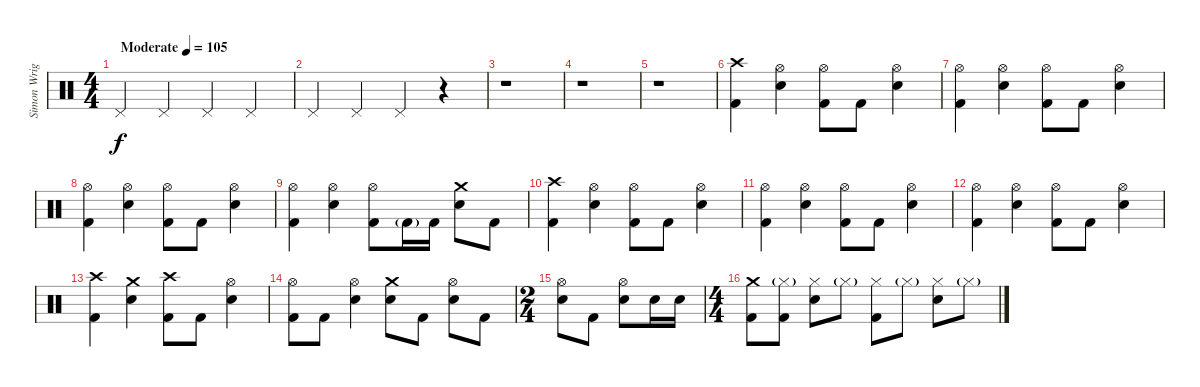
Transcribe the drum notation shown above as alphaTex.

\track ("Simon Wright" "Simon Wrig") {instrument percussion}
\staff {score}
\articulation defaults
\ts (4 4)
\tempo (105 "Moderate")
\clef neutral
\ks c "Pedal Hi-Hat (hit)".4{dy f} "Pedal Hi-Hat (hit)".4 "Pedal Hi-Hat (hit)".4 "Pedal Hi-Hat (hit)".4
|
"Pedal Hi-Hat (hit)".4 "Pedal Hi-Hat (hit)".4 "Pedal Hi-Hat (hit)".4 r.4 |
r.1 |
r.1 |
r.1 |
("Crash high (hit)" "Kick (hit) 2").4 ("Hi-Hat (open)" "Snare (hit) 2").4 ("Hi-Hat (open)" "Kick (hit) 2").8 "Kick (hit) 2".8 ("Hi-Hat (open)" "Snare (hit) 2").4 |
("Hi-Hat (open)" "Kick (hit) 2").4 ("Hi-Hat (open)" "Snare (hit) 2").4 ("Hi-Hat (open)" "Kick (hit) 2").8 "Kick (hit) 2".8 ("Hi-Hat (open)" "Snare (hit) 2").4 |
("Hi-Hat (open)" "Kick (hit) 2").4 ("Hi-Hat (open)" "Snare (hit) 2").4 ("Hi-Hat (open)" "Kick (hit) 2").8 "Kick (hit) 2".8 ("Hi-Hat (open)" "Snare (hit) 2").4 |
("Hi-Hat (open)" "Kick (hit) 2").4 ("Hi-Hat (open)" "Snare (hit) 2").4 ("Hi-Hat (open)" "Kick (hit) 2").8 "Kick (hit) 2"{g}.16 "Kick (hit) 2".16 ("Crash medium (hit)" "Snare (hit) 2").8 "Kick (hit) 2".8 |
("Crash high (hit)" "Kick (hit) 2").4 ("Hi-Hat (open)" "Snare (hit) 2").4 ("Hi-Hat (open)" "Kick (hit) 2").8 "Kick (hit) 2".8 ("Hi-Hat (open)" "Snare (hit) 2").4 |
("Hi-Hat (open)" "Kick (hit) 2").4 ("Hi-Hat (open)" "Snare (hit) 2").4 ("Hi-Hat (open)" "Kick (hit) 2").8 "Kick (hit) 2".8 ("Hi-Hat (open)" "Snare (hit) 2").4 |
("Hi-Hat (open)" "Kick (hit) 2").4 ("Hi-Hat (open)" "Snare (hit) 2").4 ("Hi-Hat (open)" "Kick (hit) 2").8 "Kick (hit) 2".8 ("Hi-Hat (open)" "Snare (hit) 2").4 |
("Crash high (hit)" "Kick (hit) 2").4 ("Crash medium (hit)" "Snare (hit) 2").4 ("Crash high (hit)" "Kick (hit) 2").8 "Kick (hit) 2".8 ("Hi-Hat (open)" "Snare (hit) 2").4 |
("Hi-Hat (open)" "Kick (hit) 2").8 "Kick (hit) 2".8 ("Hi-Hat (open)" "Snare (hit) 2").4 ("Crash medium (hit)" "Snare (hit) 2").8 "Kick (hit) 2".8 ("Hi-Hat (open)" "Snare (hit) 2").8 "Kick (hit) 2".8 |
\ts (2 4)
("Hi-Hat (open)" "Snare (hit) 2").8 "Kick (hit) 2".8 ("Hi-Hat (open)" "Snare (hit) 2").8 "Snare (hit) 2".16 "Snare (hit) 2".16 |
\ts (4 4)
("Crash medium (hit)" "Kick (hit) 2").8 ("Hi-Hat (closed)"{g} "Kick (hit) 2").8 ("Hi-Hat (closed)" "Snare (hit) 2").8 "Hi-Hat (closed)"{g}.8 ("Hi-Hat (closed)" "Kick (hit) 2").8 "Hi-Hat (closed)"{g}.8 ("Hi-Hat (closed)" "Snare (hit) 2").8 "Hi-Hat (closed)"{g}.8
